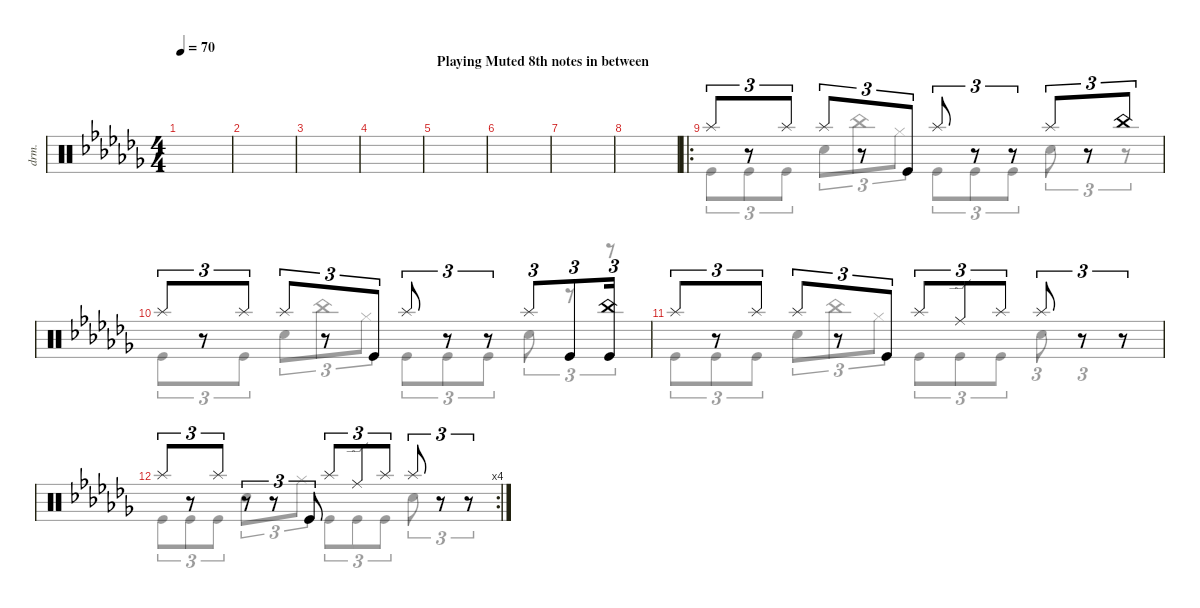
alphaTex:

\defaultSystemsLayout 4
\hideDynamics
\bracketExtendMode nobrackets
\track ("Drumkit" "drm.") {instrument percussion}
\staff {score}
\articulation defaults
\voice
\ts (4 4)
\section ("" "")
\tempo 70
\clef neutral
\ks abminor
|
|
|
|
\section ("" "Playing Muted 8th notes in between")
|
|
|
|
\ro "Splash (hit)"{acc forcenatural}.8{tu (3 2) beam Up}
r.8{tu (3 2) beam Up} "Splash (hit)"{acc forcenatural}.8{tu (3 2) beam Up} "Splash (hit)"{acc forcenatural}.8{tu (3 2) beam Up} r.8{tu (3 2) beam Up} "Kick (hit)"{acc forcenatural}.8{tu (3 2) beam Up} "Splash (hit)"{acc forcenatural}.8{tu (3 2) beam Up} r.8{tu (3 2) beam Up} r.8{tu (3 2) beam Up} "Splash (hit)"{acc forcenatural}.8{tu (3 2) beam Up} r.8{tu (3 2) beam Up} "China (hit)"{acc forcenatural}.8{tu (3 2) beam Up} |
"Splash (hit)"{acc forcenatural}.8{tu (3 2) beam Up} r.8{tu (3 2) beam Up} "Splash (hit)"{acc forcenatural}.8{tu (3 2) beam Up} "Splash (hit)"{acc forcenatural}.8{tu (3 2) beam Up} r.8{tu (3 2) beam Up} "Kick (hit)"{acc forcenatural}.8{tu (3 2) beam Up} "Splash (hit)"{acc forcenatural}.8{tu (3 2) beam Up} r.8{tu (3 2) beam Up} r.8{tu (3 2) beam Up} "Splash (hit)"{acc forcenatural}.8{tu (3 2) beam Up} "Kick (hit)"{acc forcenatural}.8{tu (3 2) beam Up} ("China (hit)"{acc forcenatural} "Kick (hit)"{acc forcenatural}).16{tu (3 2) beam Up} |
"Splash (hit)"{acc forcenatural}.8{tu (3 2) beam Up} r.8{tu (3 2) beam Up} "Splash (hit)"{acc forcenatural}.8{tu (3 2) beam Up} "Splash (hit)"{acc forcenatural}.8{tu (3 2) beam Up} r.8{tu (3 2) beam Up} "Kick (hit)"{acc forcenatural}.8{tu (3 2) beam Up} "Splash (hit)"{acc forcenatural}.8{tu (3 2) beam Up} "Ride (edge)"{acc forcenatural}.8{tu (3 2) beam Up} "Splash (hit)"{acc forcenatural}.8{tu (3 2) beam Up} "Splash (hit)"{acc forcenatural}.8{tu (3 2) beam Up} r.8{tu (3 2) beam Up} r.8{tu (3 2) beam Up} |
\rc 4 "Splash (hit)"{acc forcenatural}.8{tu (3 2) beam Up}
r.8{tu (3 2) beam Up} "Splash (hit)"{acc forcenatural}.8{tu (3 2) beam Up} r.8{tu (3 2) beam Up} r.8{tu (3 2) beam Up} "Kick (hit)"{acc forcenatural}.8{tu (3 2) beam Up} "Splash (hit)"{acc forcenatural}.8{tu (3 2) beam Up} "Ride (edge)"{acc forcenatural}.8{tu (3 2) beam Up} "Splash (hit)"{acc forcenatural}.8{tu (3 2) beam Up} "Splash (hit)"{acc forcenatural}.8{tu (3 2) beam Up} r.8{tu (3 2) beam Up} r.8{tu (3 2) beam Up}
\voice
\clef neutral
\ottava regular
\simile none
\ks abminor
|
|
|
|
|
|
|
|
"Kick (hit)"{acc forcenatural}.8{tu (3 2) beam Down} "Kick (hit)"{acc forcenatural}.8{tu (3 2) beam Down} "Kick (hit)"{acc forcenatural}.8{tu (3 2) beam Down} "Snare (hit) 2"{acc forcenatural}.8{tu (3 2) beam Down} "China (hit)"{acc forcenatural}.8{tu (3 2) beam Down} "Hi-Hat (closed)"{acc forcenatural}.8{tu (3 2) beam Down} "Kick (hit)"{acc forcenatural}.8{tu (3 2) beam Down} "Kick (hit)"{acc forcenatural}.8{tu (3 2) beam Down} "Kick (hit)"{acc forcenatural}.8{tu (3 2) beam Down} "Snare (hit) 2"{acc forcenatural}.8{tu (3 2) beam Down} r.8{tu (3 2) beam Down} r.8{tu (3 2) beam Down} |
"Kick (hit)"{acc forcenatural}.8{tu (3 2) beam Down} r.8{tu (3 2) beam Down} "Kick (hit)"{acc forcenatural}.8{tu (3 2) beam Down} "Snare (hit) 2"{acc forcenatural}.8{tu (3 2) beam Down} "China (hit)"{acc forcenatural}.8{tu (3 2) beam Down} "Hi-Hat (closed)"{acc forcenatural}.8{tu (3 2) beam Down} "Kick (hit)"{acc forcenatural}.8{tu (3 2) beam Down} "Kick (hit)"{acc forcenatural}.8{tu (3 2) beam Down} "Kick (hit)"{acc forcenatural}.8{tu (3 2) beam Down} "Snare (hit) 2"{acc forcenatural}.8{tu (3 2) beam Down} r.8{tu (3 2) beam Down} r.8{tu (3 2) beam Down} |
"Kick (hit)"{acc forcenatural}.8{tu (3 2) beam Down} "Kick (hit)"{acc forcenatural}.8{tu (3 2) beam Down} "Kick (hit)"{acc forcenatural}.8{tu (3 2) beam Down} "Snare (hit) 2"{acc forcenatural}.8{tu (3 2) beam Down} "China (hit)"{acc forcenatural}.8{tu (3 2) beam Down} "Hi-Hat (closed)"{acc forcenatural}.8{tu (3 2) beam Down} "Kick (hit)"{acc forcenatural}.8{tu (3 2) beam Down} "Kick (hit)"{acc forcenatural}.8{tu (3 2) beam Down} "Kick (hit)"{acc forcenatural}.8{tu (3 2) beam Down} "Snare (hit) 2"{acc forcenatural}.8{tu (3 2) beam Down} r.8{tu (3 2) beam Down} |
"Kick (hit)"{acc forcenatural}.8{tu (3 2) beam Down} "Kick (hit)"{acc forcenatural}.8{tu (3 2) beam Down} "Kick (hit)"{acc forcenatural}.8{tu (3 2) beam Down} "Snare (hit) 2"{acc forcenatural}.8{tu (3 2) beam Down} r.8{tu (3 2) beam Down} "Hi-Hat (closed)"{acc forcenatural}.8{tu (3 2) beam Down} "Kick (hit)"{acc forcenatural}.8{tu (3 2) beam Down} "Kick (hit)"{acc forcenatural}.8{tu (3 2) beam Down} "Kick (hit)"{acc forcenatural}.8{tu (3 2) beam Down} "Snare (hit) 2"{acc forcenatural}.8{tu (3 2) beam Down} r.8{tu (3 2) beam Down} r.8{tu (3 2) beam Down}
